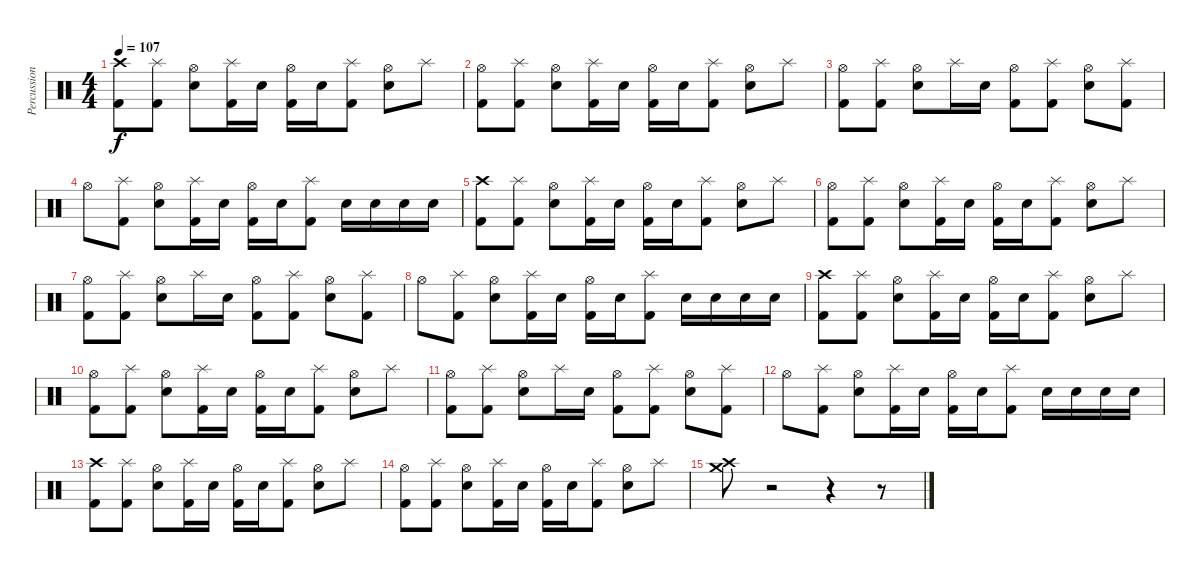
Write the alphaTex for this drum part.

\track ("Percussions" "Percussion") {instrument percussion}
\staff {score}
\articulation defaults
\ts (4 4)
\tempo 107
\clef neutral
\ks c
("Crash high (hit)" "Kick (hit) 2").8{dy f} ("Splash (hit)" "Kick (hit) 2").8 ("Hi-Hat (open)" "Snare (hit) 2").8 ("Splash (hit)" "Kick (hit) 2").16 "Snare (hit) 2".16 ("Hi-Hat (open)" "Kick (hit) 2").16 "Snare (hit) 2".16 ("Splash (hit)" "Kick (hit) 2").8 ("Hi-Hat (open)" "Snare (hit) 2").8 "Splash (hit)".8 |
("Hi-Hat (open)" "Kick (hit) 2").8 ("Splash (hit)" "Kick (hit) 2").8 ("Hi-Hat (open)" "Snare (hit) 2").8 ("Splash (hit)" "Kick (hit) 2").16 "Snare (hit) 2".16 ("Hi-Hat (open)" "Kick (hit) 2").16 "Snare (hit) 2".16 ("Splash (hit)" "Kick (hit) 2").8 ("Hi-Hat (open)" "Snare (hit) 2").8 "Splash (hit)".8 |
("Hi-Hat (open)" "Kick (hit) 2").8 ("Splash (hit)" "Kick (hit) 2").8 ("Hi-Hat (open)" "Snare (hit) 2").8 "Splash (hit)".16 "Snare (hit) 2".16 ("Hi-Hat (open)" "Kick (hit) 2").8 ("Splash (hit)" "Kick (hit) 2").8 ("Hi-Hat (open)" "Snare (hit) 2").8 ("Splash (hit)" "Kick (hit) 2").8 |
"Hi-Hat (open)".8 ("Splash (hit)" "Kick (hit) 2").8 ("Hi-Hat (open)" "Snare (hit) 2").8 ("Splash (hit)" "Kick (hit) 2").16 "Snare (hit) 2".16 ("Hi-Hat (open)" "Kick (hit) 2").16 "Snare (hit) 2".16 ("Splash (hit)" "Kick (hit) 2").8 "Electric Snare (hit)".16 "Electric Snare (hit)".16 "Electric Snare (hit)".16 "Electric Snare (hit)".16 |
("Crash high (hit)" "Kick (hit) 2").8 ("Splash (hit)" "Kick (hit) 2").8 ("Hi-Hat (open)" "Snare (hit) 2").8 ("Splash (hit)" "Kick (hit) 2").16 "Snare (hit) 2".16 ("Hi-Hat (open)" "Kick (hit) 2").16 "Snare (hit) 2".16 ("Splash (hit)" "Kick (hit) 2").8 ("Hi-Hat (open)" "Snare (hit) 2").8 "Splash (hit)".8 |
("Hi-Hat (open)" "Kick (hit) 2").8 ("Splash (hit)" "Kick (hit) 2").8 ("Hi-Hat (open)" "Snare (hit) 2").8 ("Splash (hit)" "Kick (hit) 2").16 "Snare (hit) 2".16 ("Hi-Hat (open)" "Kick (hit) 2").16 "Snare (hit) 2".16 ("Splash (hit)" "Kick (hit) 2").8 ("Hi-Hat (open)" "Snare (hit) 2").8 "Splash (hit)".8 |
("Hi-Hat (open)" "Kick (hit) 2").8 ("Splash (hit)" "Kick (hit) 2").8 ("Hi-Hat (open)" "Snare (hit) 2").8 "Splash (hit)".16 "Snare (hit) 2".16 ("Hi-Hat (open)" "Kick (hit) 2").8 ("Splash (hit)" "Kick (hit) 2").8 ("Hi-Hat (open)" "Snare (hit) 2").8 ("Splash (hit)" "Kick (hit) 2").8 |
"Hi-Hat (open)".8 ("Splash (hit)" "Kick (hit) 2").8 ("Hi-Hat (open)" "Snare (hit) 2").8 ("Splash (hit)" "Kick (hit) 2").16 "Snare (hit) 2".16 ("Hi-Hat (open)" "Kick (hit) 2").16 "Snare (hit) 2".16 ("Splash (hit)" "Kick (hit) 2").8 "Electric Snare (hit)".16 "Electric Snare (hit)".16 "Electric Snare (hit)".16 "Electric Snare (hit)".16 |
("Crash high (hit)" "Kick (hit) 2").8 ("Splash (hit)" "Kick (hit) 2").8 ("Hi-Hat (open)" "Snare (hit) 2").8 ("Splash (hit)" "Kick (hit) 2").16 "Snare (hit) 2".16 ("Hi-Hat (open)" "Kick (hit) 2").16 "Snare (hit) 2".16 ("Splash (hit)" "Kick (hit) 2").8 ("Hi-Hat (open)" "Snare (hit) 2").8 "Splash (hit)".8 |
("Hi-Hat (open)" "Kick (hit) 2").8 ("Splash (hit)" "Kick (hit) 2").8 ("Hi-Hat (open)" "Snare (hit) 2").8 ("Splash (hit)" "Kick (hit) 2").16 "Snare (hit) 2".16 ("Hi-Hat (open)" "Kick (hit) 2").16 "Snare (hit) 2".16 ("Splash (hit)" "Kick (hit) 2").8 ("Hi-Hat (open)" "Snare (hit) 2").8 "Splash (hit)".8 |
("Hi-Hat (open)" "Kick (hit) 2").8 ("Splash (hit)" "Kick (hit) 2").8 ("Hi-Hat (open)" "Snare (hit) 2").8 "Splash (hit)".16 "Snare (hit) 2".16 ("Hi-Hat (open)" "Kick (hit) 2").8 ("Splash (hit)" "Kick (hit) 2").8 ("Hi-Hat (open)" "Snare (hit) 2").8 ("Splash (hit)" "Kick (hit) 2").8 |
"Hi-Hat (open)".8 ("Splash (hit)" "Kick (hit) 2").8 ("Hi-Hat (open)" "Snare (hit) 2").8 ("Splash (hit)" "Kick (hit) 2").16 "Snare (hit) 2".16 ("Hi-Hat (open)" "Kick (hit) 2").16 "Snare (hit) 2".16 ("Splash (hit)" "Kick (hit) 2").8 "Electric Snare (hit)".16 "Electric Snare (hit)".16 "Electric Snare (hit)".16 "Electric Snare (hit)".16 |
("Crash high (hit)" "Kick (hit) 2").8 ("Splash (hit)" "Kick (hit) 2").8 ("Hi-Hat (open)" "Snare (hit) 2").8 ("Splash (hit)" "Kick (hit) 2").16 "Snare (hit) 2".16 ("Hi-Hat (open)" "Kick (hit) 2").16 "Snare (hit) 2".16 ("Splash (hit)" "Kick (hit) 2").8 ("Hi-Hat (open)" "Snare (hit) 2").8 "Splash (hit)".8 |
("Hi-Hat (open)" "Kick (hit) 2").8 ("Splash (hit)" "Kick (hit) 2").8 ("Hi-Hat (open)" "Snare (hit) 2").8 ("Splash (hit)" "Kick (hit) 2").16 "Snare (hit) 2".16 ("Hi-Hat (open)" "Kick (hit) 2").16 "Snare (hit) 2".16 ("Splash (hit)" "Kick (hit) 2").8 ("Hi-Hat (open)" "Snare (hit) 2").8 "Splash (hit)".8 |
("Crash medium (hit)" "Crash high (hit)").8 r.2 r.4 r.8
